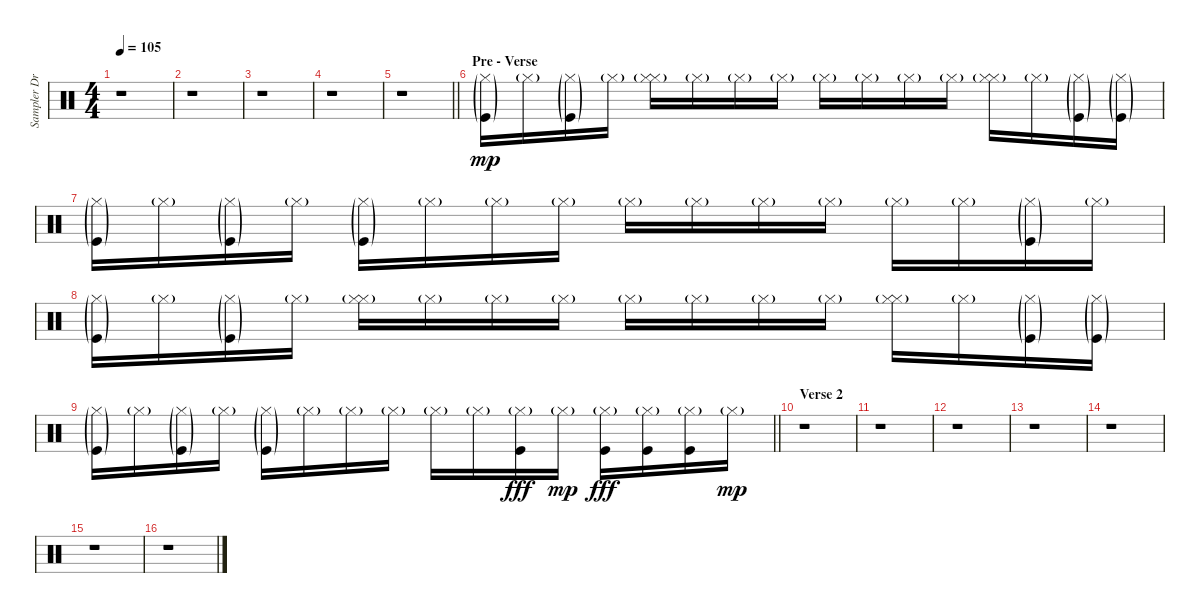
\track ("Sampler Drums" "Sampler Dr") {instrument percussion}
\staff {score}
\articulation defaults
\ts (4 4)
\tempo 105
\clef neutral
\ks c
r.1{dy mp} |
r.1 |
r.1 |
r.1 |
\barLineRight lightlight
r.1 |
\section ("" "Pre - Verse")
("Hi-Hat (closed)"{g} "Kick (hit)"{g}).16 "Hi-Hat (closed)"{g}.16 ("Hi-Hat (closed)"{g} "Kick (hit)"{g}).16 "Hi-Hat (closed)"{g}.16 ("Hi-Hat (closed)"{g} "Hi-Hat (closed)"{g}).16 "Hi-Hat (closed)"{g}.16 "Hi-Hat (closed)"{g}.16 "Hi-Hat (closed)"{g}.16 "Hi-Hat (closed)"{g}.16 "Hi-Hat (closed)"{g}.16 "Hi-Hat (closed)"{g}.16 "Hi-Hat (closed)"{g}.16 ("Hi-Hat (closed)"{g} "Hi-Hat (closed)"{g}).16 "Hi-Hat (closed)"{g}.16 ("Hi-Hat (closed)"{g} "Kick (hit)"{g}).16 ("Hi-Hat (closed)"{g} "Kick (hit)"{g}).16 |
("Hi-Hat (closed)"{g} "Kick (hit)"{g}).16 "Hi-Hat (closed)"{g}.16 ("Hi-Hat (closed)"{g} "Kick (hit)"{g}).16 "Hi-Hat (closed)"{g}.16 ("Hi-Hat (closed)"{g} "Kick (hit)"{g}).16 "Hi-Hat (closed)"{g}.16 "Hi-Hat (closed)"{g}.16 "Hi-Hat (closed)"{g}.16 "Hi-Hat (closed)"{g}.16 "Hi-Hat (closed)"{g}.16 "Hi-Hat (closed)"{g}.16 "Hi-Hat (closed)"{g}.16 "Hi-Hat (closed)"{g}.16 "Hi-Hat (closed)"{g}.16 ("Hi-Hat (closed)"{g} "Kick (hit)"{g}).16 "Hi-Hat (closed)"{g}.16 |
("Hi-Hat (closed)"{g} "Kick (hit)"{g}).16 "Hi-Hat (closed)"{g}.16 ("Hi-Hat (closed)"{g} "Kick (hit)"{g}).16 "Hi-Hat (closed)"{g}.16 ("Hi-Hat (closed)"{g} "Hi-Hat (closed)"{g}).16 "Hi-Hat (closed)"{g}.16 "Hi-Hat (closed)"{g}.16 "Hi-Hat (closed)"{g}.16 "Hi-Hat (closed)"{g}.16 "Hi-Hat (closed)"{g}.16 "Hi-Hat (closed)"{g}.16 "Hi-Hat (closed)"{g}.16 ("Hi-Hat (closed)"{g} "Hi-Hat (closed)"{g}).16 "Hi-Hat (closed)"{g}.16 ("Hi-Hat (closed)"{g} "Kick (hit)"{g}).16 ("Hi-Hat (closed)"{g} "Kick (hit)"{g}).16 |
\barLineRight lightlight
("Hi-Hat (closed)"{g} "Kick (hit)"{g}).16 "Hi-Hat (closed)"{g}.16 ("Hi-Hat (closed)"{g} "Kick (hit)"{g}).16 "Hi-Hat (closed)"{g}.16 ("Hi-Hat (closed)"{g} "Kick (hit)"{g}).16 "Hi-Hat (closed)"{g}.16 "Hi-Hat (closed)"{g}.16 "Hi-Hat (closed)"{g}.16 "Hi-Hat (closed)"{g}.16 "Hi-Hat (closed)"{g}.16 ("Hi-Hat (closed)"{g} "Kick (hit)").16{dy fff} "Hi-Hat (closed)"{g}.16{dy mp} ("Hi-Hat (closed)"{g} "Kick (hit)").16{dy fff} ("Hi-Hat (closed)"{g} "Kick (hit)").16 ("Hi-Hat (closed)"{g} "Kick (hit)").16 "Hi-Hat (closed)"{g}.16{dy mp} |
\section ("" "Verse 2")
r.1 |
r.1 |
r.1 |
r.1 |
r.1 |
r.1 |
r.1
